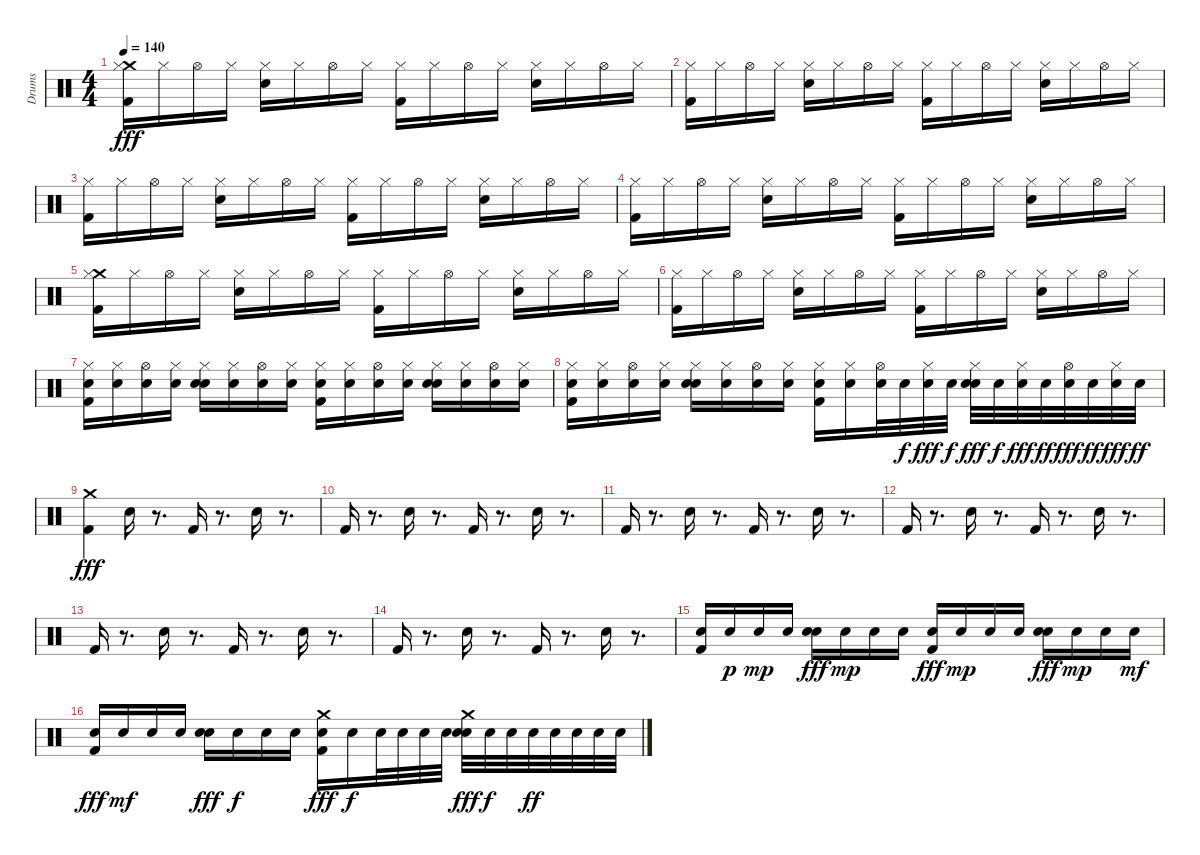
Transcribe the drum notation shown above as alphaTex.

\track ("Drums" "Drums") {instrument percussion}
\staff {score}
\articulation defaults
\ts (4 4)
\tempo 140
\clef neutral
\ks c
("Crash medium (hit)" "Hi-Hat (closed)" "Kick (hit) 2").16{dy fff} "Hi-Hat (closed)".16 "Hi-Hat (open)".16 "Hi-Hat (closed)".16 ("Hi-Hat (closed)" "Electric Snare (hit)").16 "Hi-Hat (closed)".16 "Hi-Hat (open)".16 "Hi-Hat (closed)".16 ("Hi-Hat (closed)" "Kick (hit) 2").16 "Hi-Hat (closed)".16 "Hi-Hat (open)".16 "Hi-Hat (closed)".16 ("Hi-Hat (closed)" "Electric Snare (hit)").16 "Hi-Hat (closed)".16 "Hi-Hat (open)".16 "Hi-Hat (closed)".16 |
("Hi-Hat (closed)" "Kick (hit) 2").16 "Hi-Hat (closed)".16 "Hi-Hat (open)".16 "Hi-Hat (closed)".16 ("Hi-Hat (closed)" "Electric Snare (hit)").16 "Hi-Hat (closed)".16 "Hi-Hat (open)".16 "Hi-Hat (closed)".16 ("Hi-Hat (closed)" "Kick (hit) 2").16 "Hi-Hat (closed)".16 "Hi-Hat (open)".16 "Hi-Hat (closed)".16 ("Hi-Hat (closed)" "Electric Snare (hit)").16 "Hi-Hat (closed)".16 "Hi-Hat (open)".16 "Hi-Hat (closed)".16 |
("Hi-Hat (closed)" "Kick (hit) 2").16 "Hi-Hat (closed)".16 "Hi-Hat (open)".16 "Hi-Hat (closed)".16 ("Hi-Hat (closed)" "Electric Snare (hit)").16 "Hi-Hat (closed)".16 "Hi-Hat (open)".16 "Hi-Hat (closed)".16 ("Hi-Hat (closed)" "Kick (hit) 2").16 "Hi-Hat (closed)".16 "Hi-Hat (open)".16 "Hi-Hat (closed)".16 ("Hi-Hat (closed)" "Electric Snare (hit)").16 "Hi-Hat (closed)".16 "Hi-Hat (open)".16 "Hi-Hat (closed)".16 |
("Hi-Hat (closed)" "Kick (hit) 2").16 "Hi-Hat (closed)".16 "Hi-Hat (open)".16 "Hi-Hat (closed)".16 ("Hi-Hat (closed)" "Electric Snare (hit)").16 "Hi-Hat (closed)".16 "Hi-Hat (open)".16 "Hi-Hat (closed)".16 ("Hi-Hat (closed)" "Kick (hit) 2").16 "Hi-Hat (closed)".16 "Hi-Hat (open)".16 "Hi-Hat (closed)".16 ("Hi-Hat (closed)" "Electric Snare (hit)").16 "Hi-Hat (closed)".16 "Hi-Hat (open)".16 "Hi-Hat (closed)".16 |
("Crash medium (hit)" "Hi-Hat (closed)" "Kick (hit) 2").16 "Hi-Hat (closed)".16 "Hi-Hat (open)".16 "Hi-Hat (closed)".16 ("Hi-Hat (closed)" "Electric Snare (hit)").16 "Hi-Hat (closed)".16 "Hi-Hat (open)".16 "Hi-Hat (closed)".16 ("Hi-Hat (closed)" "Kick (hit) 2").16 "Hi-Hat (closed)".16 "Hi-Hat (open)".16 "Hi-Hat (closed)".16 ("Hi-Hat (closed)" "Electric Snare (hit)").16 "Hi-Hat (closed)".16 "Hi-Hat (open)".16 "Hi-Hat (closed)".16 |
("Hi-Hat (closed)" "Kick (hit) 2").16 "Hi-Hat (closed)".16 "Hi-Hat (open)".16 "Hi-Hat (closed)".16 ("Hi-Hat (closed)" "Electric Snare (hit)").16 "Hi-Hat (closed)".16 "Hi-Hat (open)".16 "Hi-Hat (closed)".16 ("Hi-Hat (closed)" "Kick (hit) 2").16 "Hi-Hat (closed)".16 "Hi-Hat (open)".16 "Hi-Hat (closed)".16 ("Hi-Hat (closed)" "Electric Snare (hit)").16 "Hi-Hat (closed)".16 "Hi-Hat (open)".16 "Hi-Hat (closed)".16 |
("Snare (hit) 2" "Hi-Hat (closed)" "Kick (hit) 2").16 ("Snare (hit) 2" "Hi-Hat (closed)").16 ("Snare (hit) 2" "Hi-Hat (open)").16 ("Snare (hit) 2" "Hi-Hat (closed)").16 ("Snare (hit) 2" "Hi-Hat (closed)" "Electric Snare (hit)").16 ("Snare (hit) 2" "Hi-Hat (closed)").16 ("Snare (hit) 2" "Hi-Hat (open)").16 ("Snare (hit) 2" "Hi-Hat (closed)").16 ("Snare (hit) 2" "Hi-Hat (closed)" "Kick (hit) 2").16 ("Snare (hit) 2" "Hi-Hat (closed)").16 ("Snare (hit) 2" "Hi-Hat (open)").16 ("Snare (hit) 2" "Hi-Hat (closed)").16 ("Snare (hit) 2" "Hi-Hat (closed)" "Electric Snare (hit)").16 ("Snare (hit) 2" "Hi-Hat (closed)").16 ("Snare (hit) 2" "Hi-Hat (open)").16 ("Snare (hit) 2" "Hi-Hat (closed)").16 |
("Snare (hit) 2" "Hi-Hat (closed)" "Kick (hit) 2").16 ("Snare (hit) 2" "Hi-Hat (closed)").16 ("Snare (hit) 2" "Hi-Hat (open)").16 ("Snare (hit) 2" "Hi-Hat (closed)").16 ("Snare (hit) 2" "Hi-Hat (closed)" "Electric Snare (hit)").16 ("Snare (hit) 2" "Hi-Hat (closed)").16 ("Snare (hit) 2" "Hi-Hat (open)").16 ("Snare (hit) 2" "Hi-Hat (closed)").16 ("Snare (hit) 2" "Hi-Hat (closed)" "Kick (hit) 2").16 ("Snare (hit) 2" "Hi-Hat (closed)").16 ("Snare (hit) 2" "Hi-Hat (open)").32 "Snare (hit) 2".32{dy f} ("Snare (hit) 2" "Hi-Hat (closed)").32{dy fff} "Snare (hit) 2".32{dy f} ("Snare (hit) 2" "Hi-Hat (closed)" "Electric Snare (hit)").32{dy fff} "Snare (hit) 2".32{dy f} ("Snare (hit) 2" "Hi-Hat (closed)").32{dy fff} "Snare (hit) 2".32{dy ff} ("Snare (hit) 2" "Hi-Hat (open)").32{dy fff} "Snare (hit) 2".32{dy ff} ("Snare (hit) 2" "Hi-Hat (closed)").32{dy fff} "Snare (hit) 2".32{dy ff} |
("Crash medium (hit)" "Kick (hit) 2").4{dy fff} "Electric Snare (hit)".16 r.8{d} "Kick (hit) 2".16 r.8{d} "Electric Snare (hit)".16 r.8{d} |
"Kick (hit) 2".16 r.8{d} "Electric Snare (hit)".16 r.8{d} "Kick (hit) 2".16 r.8{d} "Electric Snare (hit)".16 r.8{d} |
"Kick (hit) 2".16 r.8{d} "Electric Snare (hit)".16 r.8{d} "Kick (hit) 2".16 r.8{d} "Electric Snare (hit)".16 r.8{d} |
"Kick (hit) 2".16 r.8{d} "Electric Snare (hit)".16 r.8{d} "Kick (hit) 2".16 r.8{d} "Electric Snare (hit)".16 r.8{d} |
"Kick (hit) 2".16 r.8{d} "Electric Snare (hit)".16 r.8{d} "Kick (hit) 2".16 r.8{d} "Electric Snare (hit)".16 r.8{d} |
"Kick (hit) 2".16 r.8{d} "Electric Snare (hit)".16 r.8{d} "Kick (hit) 2".16 r.8{d} "Electric Snare (hit)".16 r.8{d} |
("Snare (hit) 2" "Kick (hit) 2").16 "Snare (hit) 2".16{dy p} "Snare (hit) 2".16{dy mp} "Snare (hit) 2".16 ("Snare (hit) 2" "Electric Snare (hit)").16{dy fff} "Snare (hit) 2".16{dy mp} "Snare (hit) 2".16 "Snare (hit) 2".16 ("Snare (hit) 2" "Kick (hit) 2").16{dy fff} "Snare (hit) 2".16{dy mp} "Snare (hit) 2".16 "Snare (hit) 2".16 ("Snare (hit) 2" "Electric Snare (hit)").16{dy fff} "Snare (hit) 2".16{dy mp} "Snare (hit) 2".16 "Snare (hit) 2".16{dy mf} |
("Snare (hit) 2" "Kick (hit) 2").16{dy fff} "Snare (hit) 2".16{dy mf} "Snare (hit) 2".16 "Snare (hit) 2".16 ("Snare (hit) 2" "Electric Snare (hit)").16{dy fff} "Snare (hit) 2".16{dy f} "Snare (hit) 2".16 "Snare (hit) 2".16 ("Crash medium (hit)" "Snare (hit) 2" "Kick (hit) 2").16{dy fff} "Snare (hit) 2".16{dy f} "Snare (hit) 2".32 "Snare (hit) 2".32 "Snare (hit) 2".32 "Snare (hit) 2".32 ("Crash medium (hit)" "Snare (hit) 2" "Electric Snare (hit)").32{dy fff} "Snare (hit) 2".32{dy f} "Snare (hit) 2".32 "Snare (hit) 2".32{dy ff} "Snare (hit) 2".32 "Snare (hit) 2".32 "Snare (hit) 2".32 "Snare (hit) 2".32
